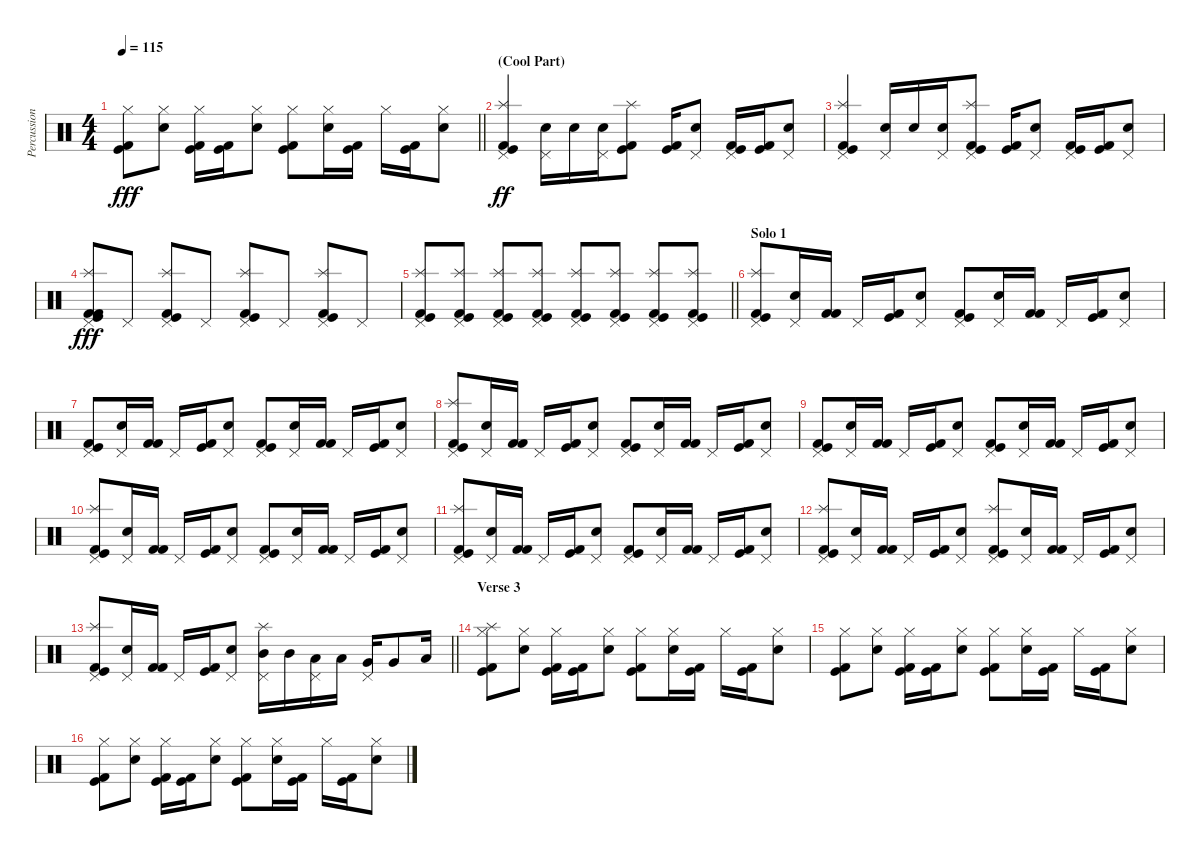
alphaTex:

\track ("Percussion" "Percussion") {instrument percussion}
\staff {score}
\articulation defaults
\ts (4 4)
\tempo 115
\clef neutral
\barLineRight lightlight
\ks c
("Hi-Hat (closed)" "Kick (hit)" "Kick (hit) 2").8{dy fff} ("Snare (hit) 2" "Hi-Hat (closed)").8 ("Hi-Hat (closed)" "Kick (hit)" "Kick (hit) 2").16 ("Kick (hit)" "Kick (hit) 2").16 ("Snare (hit) 2" "Hi-Hat (closed)").8 ("Hi-Hat (closed)" "Kick (hit)" "Kick (hit) 2").8 ("Snare (hit) 2" "Hi-Hat (closed)").16 ("Kick (hit)" "Kick (hit) 2").16 "Hi-Hat (closed)".16 ("Kick (hit)" "Kick (hit) 2").16 ("Snare (hit) 2" "Hi-Hat (closed)").8 |
\section ("" "(Cool Part)")
("Splash (hit)" "Pedal Hi-Hat (hit)" "Kick (hit) 2" "Kick (hit)").4{dy ff} ("Snare (hit) 2" "Pedal Hi-Hat (hit)").16 "Snare (hit) 2".16 ("Snare (hit) 2" "Pedal Hi-Hat (hit)").16 ("Splash (hit)" "Kick (hit) 2" "Kick (hit)").8 ("Kick (hit) 2" "Kick (hit)").16 ("Snare (hit) 2" "Pedal Hi-Hat (hit)").8 ("Pedal Hi-Hat (hit)" "Kick (hit) 2" "Kick (hit)").16 ("Kick (hit) 2" "Kick (hit)").16 ("Snare (hit) 2" "Pedal Hi-Hat (hit)").8 |
("Splash (hit)" "Pedal Hi-Hat (hit)" "Kick (hit) 2" "Kick (hit)").4 ("Snare (hit) 2" "Pedal Hi-Hat (hit)").16 "Snare (hit) 2".16 ("Snare (hit) 2" "Pedal Hi-Hat (hit)").16 ("Splash (hit)" "Pedal Hi-Hat (hit)" "Kick (hit) 2" "Kick (hit)").8 ("Kick (hit) 2" "Kick (hit)").16 ("Snare (hit) 2" "Pedal Hi-Hat (hit)").8 ("Pedal Hi-Hat (hit)" "Kick (hit) 2" "Kick (hit)").16 ("Kick (hit) 2" "Kick (hit)").16 ("Snare (hit) 2" "Pedal Hi-Hat (hit)").8 |
("Splash (hit)" "Pedal Hi-Hat (hit)" "Kick (hit) 2" "Kick (hit)" "Kick (hit) 2").8{dy fff} "Pedal Hi-Hat (hit)".8 ("Splash (hit)" "Pedal Hi-Hat (hit)" "Kick (hit)" "Kick (hit) 2").8 "Pedal Hi-Hat (hit)".8 ("Splash (hit)" "Pedal Hi-Hat (hit)" "Kick (hit)" "Kick (hit) 2").8 "Pedal Hi-Hat (hit)".8 ("Splash (hit)" "Pedal Hi-Hat (hit)" "Kick (hit)" "Kick (hit) 2").8 "Pedal Hi-Hat (hit)".8 |
\barLineRight lightlight
("Splash (hit)" "Pedal Hi-Hat (hit)" "Kick (hit)" "Kick (hit) 2").8 ("Splash (hit)" "Pedal Hi-Hat (hit)" "Kick (hit)" "Kick (hit) 2").8 ("Splash (hit)" "Pedal Hi-Hat (hit)" "Kick (hit)" "Kick (hit) 2").8 ("Splash (hit)" "Pedal Hi-Hat (hit)" "Kick (hit)" "Kick (hit) 2").8 ("Splash (hit)" "Pedal Hi-Hat (hit)" "Kick (hit)" "Kick (hit) 2").8 ("Splash (hit)" "Pedal Hi-Hat (hit)" "Kick (hit)" "Kick (hit) 2").8 ("Splash (hit)" "Pedal Hi-Hat (hit)" "Kick (hit)" "Kick (hit) 2").8 ("Splash (hit)" "Pedal Hi-Hat (hit)" "Kick (hit)" "Kick (hit) 2").8 |
\section ("" "Solo 1")
("Splash (hit)" "Pedal Hi-Hat (hit)" "Kick (hit) 2" "Kick (hit)").8 ("Pedal Hi-Hat (hit)" "Snare (hit) 2").16 ("Kick (hit) 2" "Kick (hit) 2").16 "Pedal Hi-Hat (hit)".16 ("Kick (hit)" "Kick (hit) 2").16 ("Pedal Hi-Hat (hit)" "Snare (hit) 2").8 ("Pedal Hi-Hat (hit)" "Kick (hit) 2" "Kick (hit)").8 ("Pedal Hi-Hat (hit)" "Snare (hit) 2").16 ("Kick (hit) 2" "Kick (hit) 2").16 "Pedal Hi-Hat (hit)".16 ("Kick (hit)" "Kick (hit) 2").16 ("Pedal Hi-Hat (hit)" "Snare (hit) 2").8 |
("Pedal Hi-Hat (hit)" "Kick (hit) 2" "Kick (hit)").8 ("Pedal Hi-Hat (hit)" "Snare (hit) 2").16 ("Kick (hit) 2" "Kick (hit) 2").16 "Pedal Hi-Hat (hit)".16 ("Kick (hit)" "Kick (hit) 2").16 ("Pedal Hi-Hat (hit)" "Snare (hit) 2").8 ("Pedal Hi-Hat (hit)" "Kick (hit) 2" "Kick (hit)").8 ("Pedal Hi-Hat (hit)" "Snare (hit) 2").16 ("Kick (hit) 2" "Kick (hit) 2").16 "Pedal Hi-Hat (hit)".16 ("Kick (hit)" "Kick (hit) 2").16 ("Pedal Hi-Hat (hit)" "Snare (hit) 2").8 |
("Splash (hit)" "Pedal Hi-Hat (hit)" "Kick (hit) 2" "Kick (hit)").8 ("Pedal Hi-Hat (hit)" "Snare (hit) 2").16 ("Kick (hit) 2" "Kick (hit) 2").16 "Pedal Hi-Hat (hit)".16 ("Kick (hit)" "Kick (hit) 2").16 ("Pedal Hi-Hat (hit)" "Snare (hit) 2").8 ("Pedal Hi-Hat (hit)" "Kick (hit) 2" "Kick (hit)").8 ("Pedal Hi-Hat (hit)" "Snare (hit) 2").16 ("Kick (hit) 2" "Kick (hit) 2").16 "Pedal Hi-Hat (hit)".16 ("Kick (hit)" "Kick (hit) 2").16 ("Pedal Hi-Hat (hit)" "Snare (hit) 2").8 |
("Pedal Hi-Hat (hit)" "Kick (hit) 2" "Kick (hit)").8 ("Pedal Hi-Hat (hit)" "Snare (hit) 2").16 ("Kick (hit) 2" "Kick (hit) 2").16 "Pedal Hi-Hat (hit)".16 ("Kick (hit)" "Kick (hit) 2").16 ("Pedal Hi-Hat (hit)" "Snare (hit) 2").8 ("Pedal Hi-Hat (hit)" "Kick (hit) 2" "Kick (hit)").8 ("Pedal Hi-Hat (hit)" "Snare (hit) 2").16 ("Kick (hit) 2" "Kick (hit) 2").16 "Pedal Hi-Hat (hit)".16 ("Kick (hit)" "Kick (hit) 2").16 ("Pedal Hi-Hat (hit)" "Snare (hit) 2").8 |
("Splash (hit)" "Pedal Hi-Hat (hit)" "Kick (hit) 2" "Kick (hit)").8 ("Pedal Hi-Hat (hit)" "Snare (hit) 2").16 ("Kick (hit) 2" "Kick (hit) 2").16 "Pedal Hi-Hat (hit)".16 ("Kick (hit)" "Kick (hit) 2").16 ("Pedal Hi-Hat (hit)" "Snare (hit) 2").8 ("Pedal Hi-Hat (hit)" "Kick (hit) 2" "Kick (hit)").8 ("Pedal Hi-Hat (hit)" "Snare (hit) 2").16 ("Kick (hit) 2" "Kick (hit) 2").16 "Pedal Hi-Hat (hit)".16 ("Kick (hit)" "Kick (hit) 2").16 ("Pedal Hi-Hat (hit)" "Snare (hit) 2").8 |
("Splash (hit)" "Pedal Hi-Hat (hit)" "Kick (hit) 2" "Kick (hit)").8 ("Pedal Hi-Hat (hit)" "Snare (hit) 2").16 ("Kick (hit) 2" "Kick (hit) 2").16 "Pedal Hi-Hat (hit)".16 ("Kick (hit)" "Kick (hit) 2").16 ("Pedal Hi-Hat (hit)" "Snare (hit) 2").8 ("Pedal Hi-Hat (hit)" "Kick (hit) 2" "Kick (hit)").8 ("Pedal Hi-Hat (hit)" "Snare (hit) 2").16 ("Kick (hit) 2" "Kick (hit) 2").16 "Pedal Hi-Hat (hit)".16 ("Kick (hit)" "Kick (hit) 2").16 ("Pedal Hi-Hat (hit)" "Snare (hit) 2").8 |
("Splash (hit)" "Pedal Hi-Hat (hit)" "Kick (hit) 2" "Kick (hit)").8 ("Pedal Hi-Hat (hit)" "Snare (hit) 2").16 ("Kick (hit) 2" "Kick (hit) 2").16 "Pedal Hi-Hat (hit)".16 ("Kick (hit)" "Kick (hit) 2").16 ("Pedal Hi-Hat (hit)" "Snare (hit) 2").8 ("Splash (hit)" "Pedal Hi-Hat (hit)" "Kick (hit) 2" "Kick (hit)").8 ("Pedal Hi-Hat (hit)" "Snare (hit) 2").16 ("Kick (hit) 2" "Kick (hit) 2").16 "Pedal Hi-Hat (hit)".16 ("Kick (hit)" "Kick (hit) 2").16 ("Pedal Hi-Hat (hit)" "Snare (hit) 2").8 |
\barLineRight lightlight
("Splash (hit)" "Pedal Hi-Hat (hit)" "Kick (hit) 2" "Kick (hit)").8 ("Pedal Hi-Hat (hit)" "Snare (hit) 2").16 ("Kick (hit) 2" "Kick (hit) 2").16 "Pedal Hi-Hat (hit)".16 ("Kick (hit)" "Kick (hit) 2").16 ("Pedal Hi-Hat (hit)" "Snare (hit) 2").8 ("Splash (hit)" "Pedal Hi-Hat (hit)" "Mid Tom (hit)").16{balance 14} "Mid Tom (hit)".16 ("Pedal Hi-Hat (hit)" "Low Tom (hit)").16{balance 13} "Low Tom (hit)".16 ("Pedal Hi-Hat (hit)" "Very Low Tom (hit)").16{balance 10} "Very Low Tom (hit)".8 "Low Floor Tom (hit)".16 |
\section ("" "Verse 3")
("Splash (hit)" "Hi-Hat (closed)" "Kick (hit)" "Kick (hit) 2").8 ("Snare (hit) 2" "Hi-Hat (closed)").8 ("Hi-Hat (closed)" "Kick (hit)" "Kick (hit) 2").16 ("Kick (hit)" "Kick (hit) 2").16 ("Snare (hit) 2" "Hi-Hat (closed)").8 ("Hi-Hat (closed)" "Kick (hit)" "Kick (hit) 2").8 ("Snare (hit) 2" "Hi-Hat (closed)").16 ("Kick (hit)" "Kick (hit) 2").16 "Hi-Hat (closed)".16 ("Kick (hit)" "Kick (hit) 2").16 ("Snare (hit) 2" "Hi-Hat (closed)").8 |
("Hi-Hat (closed)" "Kick (hit)" "Kick (hit) 2").8 ("Snare (hit) 2" "Hi-Hat (closed)").8 ("Hi-Hat (closed)" "Kick (hit)" "Kick (hit) 2").16 ("Kick (hit)" "Kick (hit) 2").16 ("Snare (hit) 2" "Hi-Hat (closed)").8 ("Hi-Hat (closed)" "Kick (hit)" "Kick (hit) 2").8 ("Snare (hit) 2" "Hi-Hat (closed)").16 ("Kick (hit)" "Kick (hit) 2").16 "Hi-Hat (closed)".16 ("Kick (hit)" "Kick (hit) 2").16 ("Snare (hit) 2" "Hi-Hat (closed)").8 |
("Hi-Hat (closed)" "Kick (hit)" "Kick (hit) 2").8 ("Snare (hit) 2" "Hi-Hat (closed)").8 ("Hi-Hat (closed)" "Kick (hit)" "Kick (hit) 2").16 ("Kick (hit)" "Kick (hit) 2").16 ("Snare (hit) 2" "Hi-Hat (closed)").8 ("Hi-Hat (closed)" "Kick (hit)" "Kick (hit) 2").8 ("Snare (hit) 2" "Hi-Hat (closed)").16 ("Kick (hit)" "Kick (hit) 2").16 "Hi-Hat (closed)".16 ("Kick (hit)" "Kick (hit) 2").16 ("Snare (hit) 2" "Hi-Hat (closed)").8
